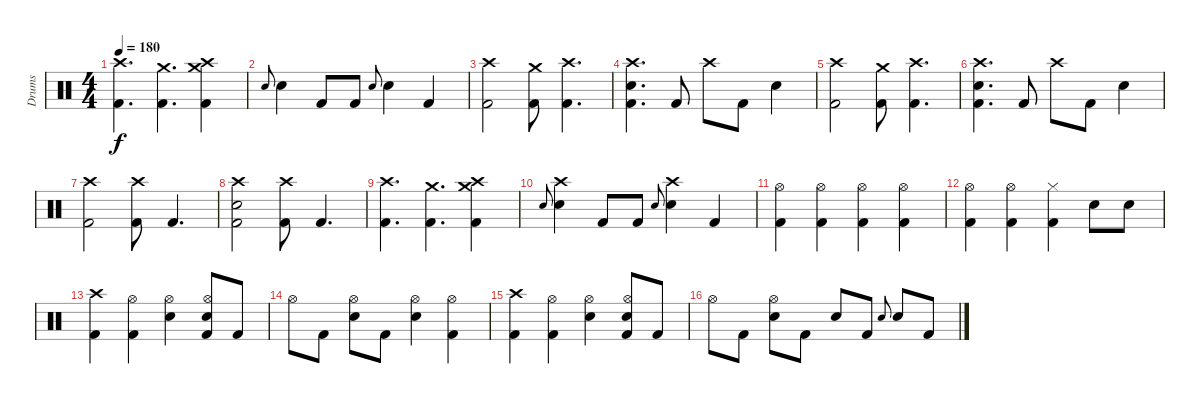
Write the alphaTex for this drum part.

\track ("Drums" "Drums") {instrument percussion}
\staff {score}
\articulation defaults
\ts (4 4)
\tempo 180
\clef neutral
\ks c
("Crash high (hit)" "Kick (hit) 2").4{d dy f} ("Crash medium (hit)" "Kick (hit) 2").4{d} ("Crash high (hit)" "Crash medium (hit)" "Kick (hit) 2").4 |
"Electric Snare (hit)".8{gr onbeat} "Electric Snare (hit)".4 "Kick (hit) 2".8 "Kick (hit) 2".8 "Electric Snare (hit)".8{gr onbeat} "Electric Snare (hit)".4 "Kick (hit) 2".4 |
("Crash high (hit)" "Kick (hit) 2").2 ("Crash medium (hit)" "Kick (hit) 2").8 ("Crash high (hit)" "Kick (hit) 2").4{d} |
("Crash high (hit)" "Electric Snare (hit)" "Kick (hit) 2").4{d} "Kick (hit) 2".8 "Crash high (hit)".8 "Kick (hit) 2".8 "Electric Snare (hit)".4 |
("Crash high (hit)" "Kick (hit) 2").2 ("Crash medium (hit)" "Kick (hit) 2").8 ("Crash high (hit)" "Kick (hit) 2").4{d} |
("Crash high (hit)" "Electric Snare (hit)" "Kick (hit) 2").4{d} "Kick (hit) 2".8 "Crash high (hit)".8 "Kick (hit) 2".8 "Electric Snare (hit)".4 |
("Crash high (hit)" "Kick (hit) 2").2 ("Crash high (hit)" "Kick (hit) 2").8 "Kick (hit) 2".4{d} |
("Crash high (hit)" "Electric Snare (hit)" "Kick (hit) 2").2 ("Crash high (hit)" "Kick (hit) 2").8 "Kick (hit) 2".4{d} |
("Crash high (hit)" "Kick (hit) 2").4{d} ("Crash medium (hit)" "Kick (hit) 2").4{d} ("Crash high (hit)" "Crash medium (hit)" "Kick (hit) 2").4 |
"Electric Snare (hit)".8{gr onbeat} ("Crash high (hit)" "Electric Snare (hit)").4 "Kick (hit) 2".8 "Kick (hit) 2".8 "Electric Snare (hit)".8{gr onbeat} ("Crash high (hit)" "Electric Snare (hit)").4 "Kick (hit) 2".4 |
("Hi-Hat (open)" "Kick (hit) 2").4 ("Hi-Hat (open)" "Kick (hit) 2").4 ("Hi-Hat (open)" "Kick (hit) 2").4 ("Hi-Hat (open)" "Kick (hit) 2").4 |
("Hi-Hat (open)" "Kick (hit) 2").4 ("Hi-Hat (open)" "Kick (hit) 2").4 ("Hi-Hat (closed)" "Kick (hit) 2").4 "Electric Snare (hit)".8 "Electric Snare (hit)".8 |
("Crash high (hit)" "Kick (hit) 2").4 ("Hi-Hat (open)" "Kick (hit) 2").4 ("Hi-Hat (open)" "Electric Snare (hit)").4 ("Hand Clap (hit)" "Hi-Hat (open)" "Kick (hit) 2").8 "Kick (hit) 2".8 |
"Hi-Hat (open)".8 "Kick (hit) 2".8 ("Hand Clap (hit)" "Hi-Hat (open)").8 "Kick (hit) 2".8 ("Hi-Hat (open)" "Electric Snare (hit)").4 ("Hi-Hat (open)" "Kick (hit) 2").4 |
("Crash high (hit)" "Kick (hit) 2").4 ("Hi-Hat (open)" "Kick (hit) 2").4 ("Hi-Hat (open)" "Electric Snare (hit)").4 ("Hand Clap (hit)" "Hi-Hat (open)" "Kick (hit) 2").8 "Kick (hit) 2".8 |
"Hi-Hat (open)".8 "Kick (hit) 2".8 ("Hand Clap (hit)" "Hi-Hat (open)").8 "Kick (hit) 2".8 "Electric Snare (hit)".8 "Kick (hit) 2".8 "Electric Snare (hit)".8{gr onbeat} "Electric Snare (hit)".8 "Kick (hit) 2".8
